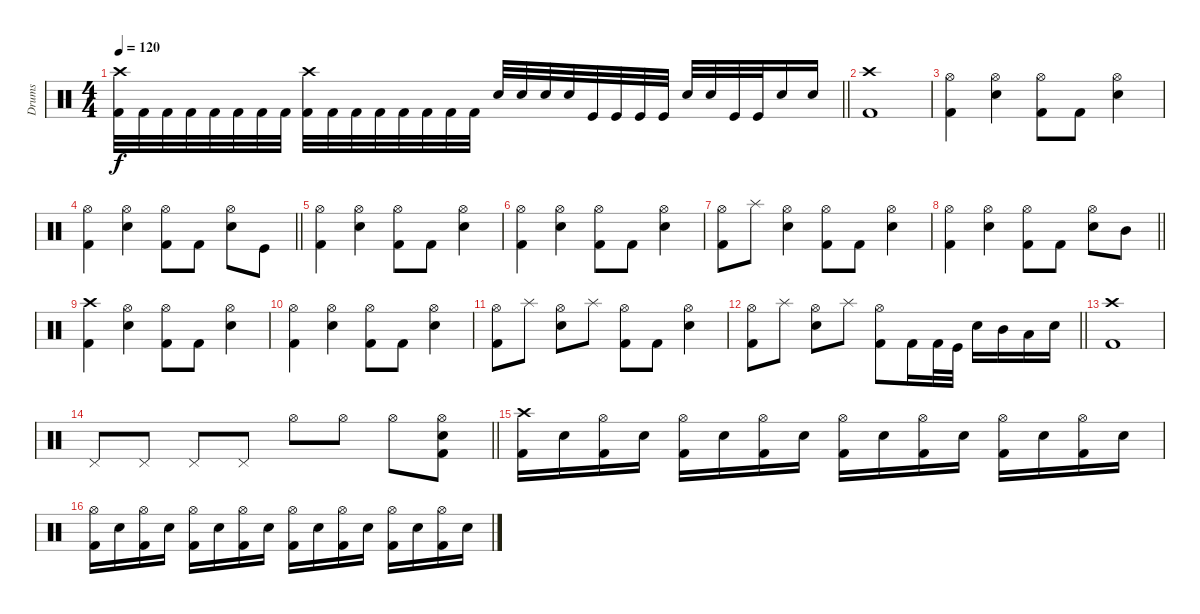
\track ("Drums" "Drums") {instrument percussion}
\staff
\articulation defaults
\ts (4 4)
\tempo 120
\clef neutral
\barLineRight lightlight
\ks c
("Crash high (hit)" "Kick (hit) 2").32{dy f} "Kick (hit) 2".32 "Kick (hit) 2".32 "Kick (hit) 2".32 "Kick (hit) 2".32 "Kick (hit) 2".32 "Kick (hit) 2".32 "Kick (hit) 2".32 ("Crash high (hit)" "Kick (hit) 2").32 "Kick (hit) 2".32 "Kick (hit) 2".32 "Kick (hit) 2".32 "Kick (hit) 2".32 "Kick (hit) 2".32 "Kick (hit) 2".32 "Kick (hit) 2".32 "Electric Snare (hit)".32 "Electric Snare (hit)".32 "Electric Snare (hit)".32 "Electric Snare (hit)".32 "Kick (hit)".32 "Kick (hit)".32 "Kick (hit)".32 "Kick (hit)".32 "Electric Snare (hit)".32 "Electric Snare (hit)".32 "Kick (hit)".32 "Kick (hit)".32 "Electric Snare (hit)".16 "Electric Snare (hit)".16 |
\section ("" "")
("Crash high (hit)" "Kick (hit) 2").1 |
("Hi-Hat (open)" "Kick (hit) 2").4 ("Hi-Hat (open)" "Electric Snare (hit)").4 ("Hi-Hat (open)" "Kick (hit) 2").8 "Kick (hit) 2".8 ("Hi-Hat (open)" "Electric Snare (hit)").4 |
\barLineRight lightlight
("Hi-Hat (open)" "Kick (hit) 2").4 ("Hi-Hat (open)" "Electric Snare (hit)").4 ("Hi-Hat (open)" "Kick (hit) 2").8 "Kick (hit) 2".8 ("Hi-Hat (open)" "Electric Snare (hit)").8 "Kick (hit)".8 |
\section ("" "")
("Hi-Hat (open)" "Kick (hit) 2").4 ("Hi-Hat (open)" "Electric Snare (hit)").4 ("Hi-Hat (open)" "Kick (hit) 2").8 "Kick (hit) 2".8 ("Hi-Hat (open)" "Electric Snare (hit)").4 |
("Hi-Hat (open)" "Kick (hit) 2").4 ("Hi-Hat (open)" "Electric Snare (hit)").4 ("Hi-Hat (open)" "Kick (hit) 2").8 "Kick (hit) 2".8 ("Hi-Hat (open)" "Electric Snare (hit)").4 |
("Hi-Hat (open)" "Kick (hit) 2").8 "Splash (hit)".8 ("Hi-Hat (open)" "Electric Snare (hit)").4 ("Hi-Hat (open)" "Kick (hit) 2").8 "Kick (hit) 2".8 ("Hi-Hat (open)" "Electric Snare (hit)").4 |
\barLineRight lightlight
("Hi-Hat (open)" "Kick (hit) 2").4 ("Hi-Hat (open)" "Electric Snare (hit)").4 ("Hi-Hat (open)" "Kick (hit) 2").8 "Kick (hit) 2".8 ("Hi-Hat (open)" "Electric Snare (hit)").8 "Mid Tom (hit)".8 |
("Crash high (hit)" "Kick (hit) 2").4 ("Hi-Hat (open)" "Electric Snare (hit)").4 ("Hi-Hat (open)" "Kick (hit) 2").8 "Kick (hit) 2".8 ("Hi-Hat (open)" "Electric Snare (hit)").4 |
("Hi-Hat (open)" "Kick (hit) 2").4 ("Hi-Hat (open)" "Electric Snare (hit)").4 ("Hi-Hat (open)" "Kick (hit) 2").8 "Kick (hit) 2".8 ("Hi-Hat (open)" "Electric Snare (hit)").4 |
("Hi-Hat (open)" "Kick (hit) 2").8 "Splash (hit)".8 ("Hi-Hat (open)" "Electric Snare (hit)").8 "Splash (hit)".8 ("Hi-Hat (open)" "Kick (hit) 2").8 "Kick (hit) 2".8 ("Hi-Hat (open)" "Electric Snare (hit)").4 |
\barLineRight lightlight
("Hi-Hat (open)" "Kick (hit) 2").8 "Splash (hit)".8 ("Hi-Hat (open)" "Electric Snare (hit)").8 "Splash (hit)".8 ("Hi-Hat (open)" "Kick (hit) 2").8 "Kick (hit) 2".16 "Kick (hit) 2".32 "Kick (hit)".32 "Electric Snare (hit)".16 "Mid Tom (hit)".16 "Low Tom (hit)".16 "Electric Snare (hit)".16 |
("Crash high (hit)" "Kick (hit) 2").1 |
\barLineRight lightlight "Pedal Hi-Hat (hit)".8 "Pedal Hi-Hat (hit)".8 "Pedal Hi-Hat (hit)".8 "Pedal Hi-Hat (hit)".8 "Hi-Hat (open)".8 "Hi-Hat (open)".8 "Hi-Hat (open)".8
("Hi-Hat (open)" "Electric Snare (hit)" "Kick (hit) 2").8 |
("Crash high (hit)" "Kick (hit) 2").16 "Electric Snare (hit)".16 ("Hi-Hat (open)" "Kick (hit) 2").16 "Electric Snare (hit)".16 ("Hi-Hat (open)" "Kick (hit) 2").16 "Electric Snare (hit)".16 ("Hi-Hat (open)" "Kick (hit) 2").16 "Electric Snare (hit)".16 ("Hi-Hat (open)" "Kick (hit) 2").16 "Electric Snare (hit)".16 ("Hi-Hat (open)" "Kick (hit) 2").16 "Electric Snare (hit)".16 ("Hi-Hat (open)" "Kick (hit) 2").16 "Electric Snare (hit)".16 ("Hi-Hat (open)" "Kick (hit) 2").16 "Electric Snare (hit)".16 |
("Hi-Hat (open)" "Kick (hit) 2").16 "Electric Snare (hit)".16 ("Hi-Hat (open)" "Kick (hit) 2").16 "Electric Snare (hit)".16 ("Hi-Hat (open)" "Kick (hit) 2").16 "Electric Snare (hit)".16 ("Hi-Hat (open)" "Kick (hit) 2").16 "Electric Snare (hit)".16 ("Hi-Hat (open)" "Kick (hit) 2").16 "Electric Snare (hit)".16 ("Hi-Hat (open)" "Kick (hit) 2").16 "Electric Snare (hit)".16 ("Hi-Hat (open)" "Kick (hit) 2").16 "Electric Snare (hit)".16 ("Hi-Hat (open)" "Kick (hit) 2").16 "Electric Snare (hit)".16
